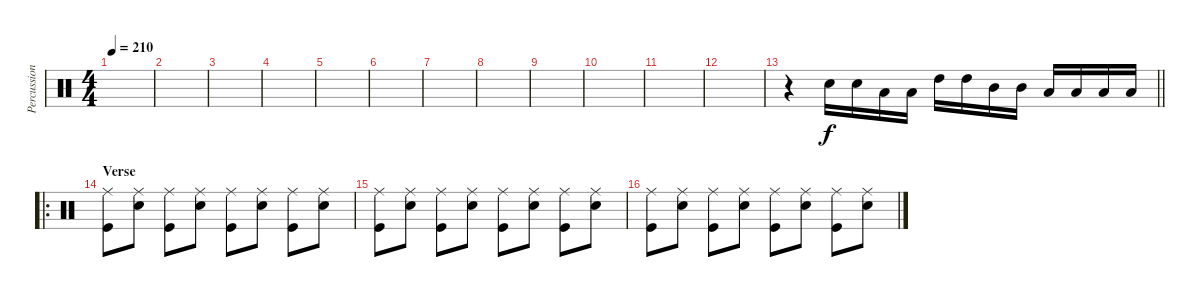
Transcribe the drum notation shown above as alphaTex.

\track ("Percussion" "Percussion") {instrument percussion}
\staff {score}
\articulation defaults
\ts (4 4)
\tempo 210
\clef neutral
\ks c
|
|
|
|
|
|
|
|
|
|
|
|
\barLineRight lightlight
r.4 "Snare (hit) 2".16 "Snare (hit) 2".16 "Low Floor Tom (hit)".16 "Low Floor Tom (hit)".16 "High Tom (hit)".16 "High Tom (hit)".16 "Mid Tom (hit)".16 "Mid Tom (hit)".16 "Low Tom (hit)".16 "Low Tom (hit)".16 "Low Floor Tom (hit)".16 "Low Floor Tom (hit)".16 |
\ro
\section ("" "Verse")
("Ride (middle)" "Kick (hit)").8 ("Ride (middle)" "Snare (hit) 2").8 ("Ride (middle)" "Kick (hit)").8 ("Ride (middle)" "Snare (hit) 2").8 ("Ride (middle)" "Kick (hit)").8 ("Ride (middle)" "Snare (hit) 2").8 ("Ride (middle)" "Kick (hit)").8 ("Ride (middle)" "Snare (hit) 2").8 |
("Ride (middle)" "Kick (hit)").8 ("Ride (middle)" "Snare (hit) 2").8 ("Ride (middle)" "Kick (hit)").8 ("Ride (middle)" "Snare (hit) 2").8 ("Ride (middle)" "Kick (hit)").8 ("Ride (middle)" "Snare (hit) 2").8 ("Ride (middle)" "Kick (hit)").8 ("Ride (middle)" "Snare (hit) 2").8 |
("Ride (middle)" "Kick (hit)").8 ("Ride (middle)" "Snare (hit) 2").8 ("Ride (middle)" "Kick (hit)").8 ("Ride (middle)" "Snare (hit) 2").8 ("Ride (middle)" "Kick (hit)").8 ("Ride (middle)" "Snare (hit) 2").8 ("Ride (middle)" "Kick (hit)").8 ("Ride (middle)" "Snare (hit) 2").8
